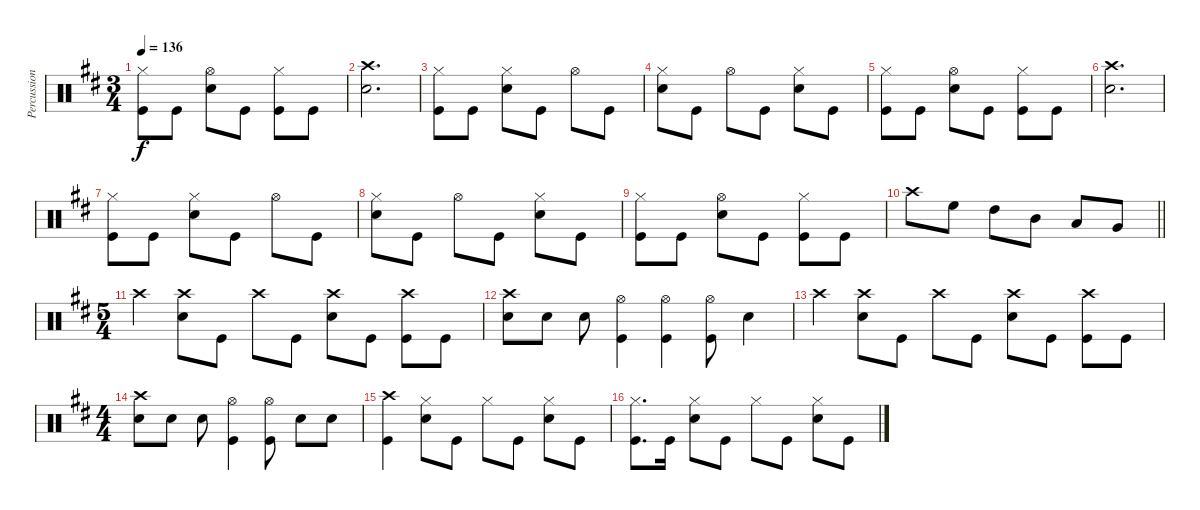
\track ("Percussion" "Percussion") {instrument percussion}
\staff {score}
\articulation defaults
\ts (3 4)
\tempo 136
\clef neutral
\ks d
("Kick (hit)" "Hi-Hat (closed)").8{dy f} "Kick (hit)".8 ("Snare (hit) 2" "Hi-Hat (open)").8 "Kick (hit)".8 ("Kick (hit)" "Hi-Hat (closed)").8 "Kick (hit)".8 |
("Snare (hit) 2" "Crash high (hit)").2{d} |
("Kick (hit)" "Hi-Hat (closed)").8 "Kick (hit)".8 ("Snare (hit) 2" "Hi-Hat (closed)").8 "Kick (hit)".8 "Hi-Hat (open)".8 "Kick (hit)".8 |
("Snare (hit) 2" "Hi-Hat (closed)").8 "Kick (hit)".8 "Hi-Hat (open)".8 "Kick (hit)".8 ("Hi-Hat (closed)" "Snare (hit) 2").8 "Kick (hit)".8 |
("Kick (hit)" "Hi-Hat (closed)").8 "Kick (hit)".8 ("Snare (hit) 2" "Hi-Hat (open)").8 "Kick (hit)".8 ("Kick (hit)" "Hi-Hat (closed)").8 "Kick (hit)".8 |
("Snare (hit) 2" "Crash high (hit)").2{d} |
("Kick (hit)" "Hi-Hat (closed)").8 "Kick (hit)".8 ("Snare (hit) 2" "Hi-Hat (closed)").8 "Kick (hit)".8 "Hi-Hat (open)".8 "Kick (hit)".8 |
("Snare (hit) 2" "Hi-Hat (closed)").8 "Kick (hit)".8 "Hi-Hat (open)".8 "Kick (hit)".8 ("Hi-Hat (closed)" "Snare (hit) 2").8 "Kick (hit)".8 |
("Kick (hit)" "Hi-Hat (closed)").8 "Kick (hit)".8 ("Snare (hit) 2" "Hi-Hat (open)").8 "Kick (hit)".8 ("Kick (hit)" "Hi-Hat (closed)").8 "Kick (hit)".8 |
\barLineRight lightlight "Crash high (hit)".8 "High Floor Tom (hit)".8 "High Tom (hit)".8 "Mid Tom (hit)".8 "Low Tom (hit)".8 "Very Low Tom (hit)".8
|
\ts (5 4)
"Crash high (hit)".4 ("Snare (hit) 2" "Crash high (hit)").8 "Kick (hit)".8 "Crash high (hit)".8 "Kick (hit)".8 ("Snare (hit) 2" "Crash high (hit)").8 "Kick (hit)".8 ("Kick (hit)" "Crash high (hit)").8 "Kick (hit)".8 |
("Snare (hit) 2" "Crash high (hit)").8 "Snare (hit) 2".8 "Snare (hit) 2".8 ("Kick (hit)" "Hi-Hat (open)").4 ("Kick (hit)" "Hi-Hat (open)").4 ("Kick (hit)" "Hi-Hat (open)").8 "Snare (hit) 2".4 |
"Crash high (hit)".4 ("Snare (hit) 2" "Crash high (hit)").8 "Kick (hit)".8 "Crash high (hit)".8 "Kick (hit)".8 ("Snare (hit) 2" "Crash high (hit)").8 "Kick (hit)".8 ("Kick (hit)" "Crash high (hit)").8 "Kick (hit)".8 |
\ts (4 4)
("Snare (hit) 2" "Crash high (hit)").8 "Snare (hit) 2".8 "Snare (hit) 2".8 ("Kick (hit)" "Hi-Hat (open)").4 ("Kick (hit)" "Hi-Hat (open)").8 "Snare (hit) 2".8 "Snare (hit) 2".8 |
("Crash high (hit)" "Kick (hit)").4 ("Snare (hit) 2" "Hi-Hat (closed)").8 "Kick (hit)".8 "Hi-Hat (closed)".8 "Kick (hit)".8 ("Snare (hit) 2" "Hi-Hat (closed)").8 "Kick (hit)".8 |
("Hi-Hat (closed)" "Kick (hit)").8{d} "Kick (hit)".16 ("Snare (hit) 2" "Hi-Hat (closed)").8 "Kick (hit)".8 "Hi-Hat (closed)".8 "Kick (hit)".8 ("Snare (hit) 2" "Hi-Hat (closed)").8 "Kick (hit)".8
